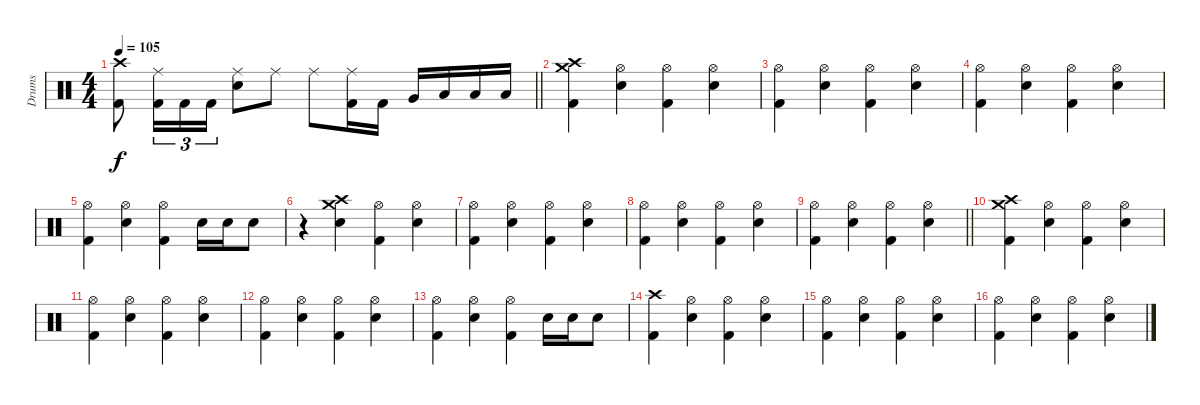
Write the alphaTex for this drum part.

\track ("Drums" "Drums") {instrument percussion}
\staff {score}
\articulation defaults
\ts (4 4)
\tempo 105
\clef neutral
\barLineRight lightlight
\ks c
("Crash high (hit)" "Kick (hit) 2").8{dy f} ("Ride (middle)" "Kick (hit) 2").16{tu (3 2)} "Kick (hit) 2".16{tu (3 2)} "Kick (hit) 2".16{tu (3 2)} ("Ride (middle)" "Snare (hit) 2").8 "Ride (middle)".8 "Ride (middle)".8 ("Ride (middle)" "Kick (hit) 2").16 "Kick (hit) 2".16 "Very Low Tom (hit)".16 "Low Tom (hit)".16 "Low Floor Tom (hit)".16 "Low Floor Tom (hit)".16 |
("Crash medium (hit)" "Crash high (hit)" "Kick (hit) 2").4 ("Hi-Hat (open)" "Snare (hit) 2").4 ("Hi-Hat (open)" "Kick (hit) 2").4 ("Hi-Hat (open)" "Snare (hit) 2").4 |
("Hi-Hat (open)" "Kick (hit) 2").4 ("Hi-Hat (open)" "Snare (hit) 2").4 ("Hi-Hat (open)" "Kick (hit) 2").4 ("Hi-Hat (open)" "Snare (hit) 2").4 |
("Hi-Hat (open)" "Kick (hit) 2").4 ("Hi-Hat (open)" "Snare (hit) 2").4 ("Hi-Hat (open)" "Kick (hit) 2").4 ("Hi-Hat (open)" "Snare (hit) 2").4 |
("Hi-Hat (open)" "Kick (hit) 2").4 ("Hi-Hat (open)" "Snare (hit) 2").4 ("Hi-Hat (open)" "Kick (hit) 2").4 "Snare (hit) 2".16 "Snare (hit) 2".16 "Snare (hit) 2".8 |
r.4 ("Crash medium (hit)" "Crash high (hit)" "Snare (hit) 2").4 ("Hi-Hat (open)" "Kick (hit) 2").4 ("Hi-Hat (open)" "Snare (hit) 2").4 |
("Hi-Hat (open)" "Kick (hit) 2").4 ("Hi-Hat (open)" "Snare (hit) 2").4 ("Hi-Hat (open)" "Kick (hit) 2").4 ("Hi-Hat (open)" "Snare (hit) 2").4 |
("Hi-Hat (open)" "Kick (hit) 2").4 ("Hi-Hat (open)" "Snare (hit) 2").4 ("Hi-Hat (open)" "Kick (hit) 2").4 ("Hi-Hat (open)" "Snare (hit) 2").4 |
\barLineRight lightlight
("Hi-Hat (open)" "Kick (hit) 2").4 ("Hi-Hat (open)" "Snare (hit) 2").4 ("Hi-Hat (open)" "Kick (hit) 2").4 ("Hi-Hat (open)" "Snare (hit) 2").4 |
("Crash medium (hit)" "Crash high (hit)" "Kick (hit) 2").4 ("Hi-Hat (open)" "Snare (hit) 2").4 ("Hi-Hat (open)" "Kick (hit) 2").4 ("Hi-Hat (open)" "Snare (hit) 2").4 |
("Hi-Hat (open)" "Kick (hit) 2").4 ("Hi-Hat (open)" "Snare (hit) 2").4 ("Hi-Hat (open)" "Kick (hit) 2").4 ("Hi-Hat (open)" "Snare (hit) 2").4 |
("Hi-Hat (open)" "Kick (hit) 2").4 ("Hi-Hat (open)" "Snare (hit) 2").4 ("Hi-Hat (open)" "Kick (hit) 2").4 ("Hi-Hat (open)" "Snare (hit) 2").4 |
("Hi-Hat (open)" "Kick (hit) 2").4 ("Hi-Hat (open)" "Snare (hit) 2").4 ("Hi-Hat (open)" "Kick (hit) 2").4 "Snare (hit) 2".16 "Snare (hit) 2".16 "Snare (hit) 2".8 |
("Crash high (hit)" "Kick (hit) 2").4 ("Hi-Hat (open)" "Snare (hit) 2").4 ("Hi-Hat (open)" "Kick (hit) 2").4 ("Hi-Hat (open)" "Snare (hit) 2").4 |
("Hi-Hat (open)" "Kick (hit) 2").4 ("Hi-Hat (open)" "Snare (hit) 2").4 ("Hi-Hat (open)" "Kick (hit) 2").4 ("Hi-Hat (open)" "Snare (hit) 2").4 |
("Hi-Hat (open)" "Kick (hit) 2").4 ("Hi-Hat (open)" "Snare (hit) 2").4 ("Hi-Hat (open)" "Kick (hit) 2").4 ("Hi-Hat (open)" "Snare (hit) 2").4
